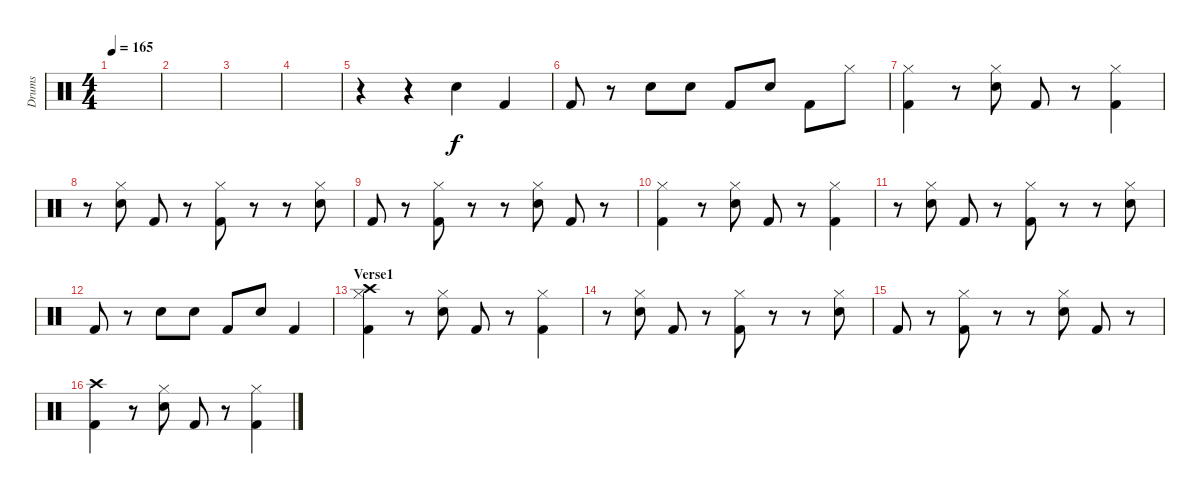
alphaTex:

\track ("Drums" "Drums") {instrument percussion}
\staff {score}
\articulation defaults
\ts (4 4)
\tempo 165
\clef neutral
\ks c
|
|
|
|
r.4 r.4 "Electric Snare (hit)".4 "Kick (hit) 2".4 |
"Kick (hit) 2".8 r.8 "Electric Snare (hit)".8 "Electric Snare (hit)".8 "Kick (hit) 2".8 "Electric Snare (hit)".8 "Kick (hit) 2".8 "Hi-Hat (closed)".8 |
("Kick (hit) 2" "Hi-Hat (closed)").4 r.8 ("Electric Snare (hit)" "Hi-Hat (closed)").8 "Kick (hit) 2".8 r.8 ("Kick (hit) 2" "Hi-Hat (closed)").4 |
r.8 ("Electric Snare (hit)" "Hi-Hat (closed)").8 "Kick (hit) 2".8 r.8 ("Kick (hit) 2" "Hi-Hat (closed)").8 r.8 r.8 ("Hi-Hat (closed)" "Electric Snare (hit)").8 |
"Kick (hit) 2".8 r.8 ("Hi-Hat (closed)" "Kick (hit) 2").8 r.8 r.8 ("Hi-Hat (closed)" "Electric Snare (hit)").8 "Kick (hit) 2".8 r.8 |
("Kick (hit) 2" "Hi-Hat (closed)").4 r.8 ("Electric Snare (hit)" "Hi-Hat (closed)").8 "Kick (hit) 2".8 r.8 ("Kick (hit) 2" "Hi-Hat (closed)").4 |
r.8 ("Electric Snare (hit)" "Hi-Hat (closed)").8 "Kick (hit) 2".8 r.8 ("Kick (hit) 2" "Hi-Hat (closed)").8 r.8 r.8 ("Hi-Hat (closed)" "Electric Snare (hit)").8 |
"Kick (hit) 2".8 r.8 "Electric Snare (hit)".8 "Electric Snare (hit)".8 "Kick (hit) 2".8 "Electric Snare (hit)".8 "Kick (hit) 2".4 |
\section ("" "Verse1")
("Kick (hit) 2" "Hi-Hat (closed)" "Crash high (hit)").4 r.8 ("Electric Snare (hit)" "Hi-Hat (closed)").8 "Kick (hit) 2".8 r.8 ("Kick (hit) 2" "Hi-Hat (closed)").4 |
r.8 ("Electric Snare (hit)" "Hi-Hat (closed)").8 "Kick (hit) 2".8 r.8 ("Kick (hit) 2" "Hi-Hat (closed)").8 r.8 r.8 ("Hi-Hat (closed)" "Electric Snare (hit)").8 |
"Kick (hit) 2".8 r.8 ("Hi-Hat (closed)" "Kick (hit) 2").8 r.8 r.8 ("Hi-Hat (closed)" "Electric Snare (hit)").8 "Kick (hit) 2".8 r.8 |
("Kick (hit) 2" "Crash high (hit)").4 r.8 ("Electric Snare (hit)" "Hi-Hat (closed)").8 "Kick (hit) 2".8 r.8 ("Kick (hit) 2" "Hi-Hat (closed)").4
